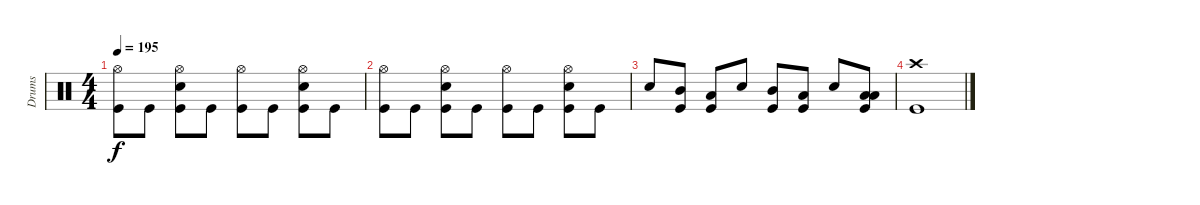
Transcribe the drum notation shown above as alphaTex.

\track ("Drums" "Drums") {instrument percussion}
\staff {score}
\articulation defaults
\ts (4 4)
\tempo 195
\clef neutral
\ks c
("Hi-Hat (open)" "Kick (hit)").8{dy f} "Kick (hit)".8 ("Hi-Hat (open)" "Electric Snare (hit)" "Kick (hit)").8 "Kick (hit)".8 ("Hi-Hat (open)" "Kick (hit)").8 "Kick (hit)".8 ("Hi-Hat (open)" "Electric Snare (hit)" "Kick (hit)").8 "Kick (hit)".8 |
("Hi-Hat (open)" "Kick (hit)").8 "Kick (hit)".8 ("Hi-Hat (open)" "Electric Snare (hit)" "Kick (hit)").8 "Kick (hit)".8 ("Hi-Hat (open)" "Kick (hit)").8 "Kick (hit)".8 ("Hi-Hat (open)" "Electric Snare (hit)" "Kick (hit)").8 "Kick (hit)".8 |
"Electric Snare (hit)".8 ("Mid Tom (hit)" "Kick (hit)").8 ("Low Tom (hit)" "Kick (hit)").8 "Electric Snare (hit)".8 ("Mid Tom (hit)" "Kick (hit)").8 ("Low Tom (hit)" "Kick (hit)").8 "Electric Snare (hit)".8 ("Low Tom (hit)" "Low Tom (hit)" "Kick (hit)").8 |
("Crash high (hit)" "Kick (hit)").1
